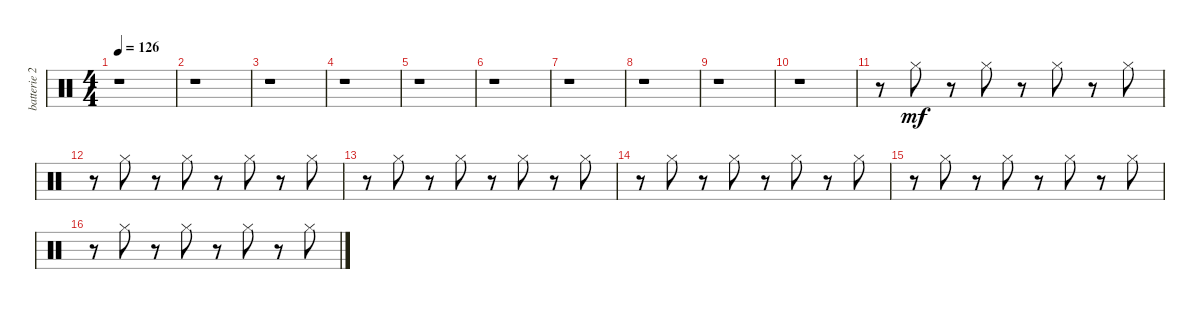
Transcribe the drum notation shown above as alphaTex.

\track ("batterie 2" "batterie 2") {instrument percussion}
\staff {score}
\articulation defaults
\ts (4 4)
\tempo 126
\clef neutral
\ks c
r.1{dy mf} |
r.1 |
r.1 |
r.1 |
r.1 |
r.1 |
r.1 |
r.1 |
r.1 |
r.1 |
r.8 "Hi-Hat (closed)".8 r.8 "Hi-Hat (closed)".8 r.8 "Hi-Hat (closed)".8 r.8 "Hi-Hat (closed)".8 |
r.8 "Hi-Hat (closed)".8 r.8 "Hi-Hat (closed)".8 r.8 "Hi-Hat (closed)".8 r.8 "Hi-Hat (closed)".8 |
r.8 "Hi-Hat (closed)".8 r.8 "Hi-Hat (closed)".8 r.8 "Hi-Hat (closed)".8 r.8 "Hi-Hat (closed)".8 |
r.8 "Hi-Hat (closed)".8 r.8 "Hi-Hat (closed)".8 r.8 "Hi-Hat (closed)".8 r.8 "Hi-Hat (closed)".8 |
r.8 "Hi-Hat (closed)".8 r.8 "Hi-Hat (closed)".8 r.8 "Hi-Hat (closed)".8 r.8 "Hi-Hat (closed)".8 |
r.8 "Hi-Hat (closed)".8 r.8 "Hi-Hat (closed)".8 r.8 "Hi-Hat (closed)".8 r.8 "Hi-Hat (closed)".8
